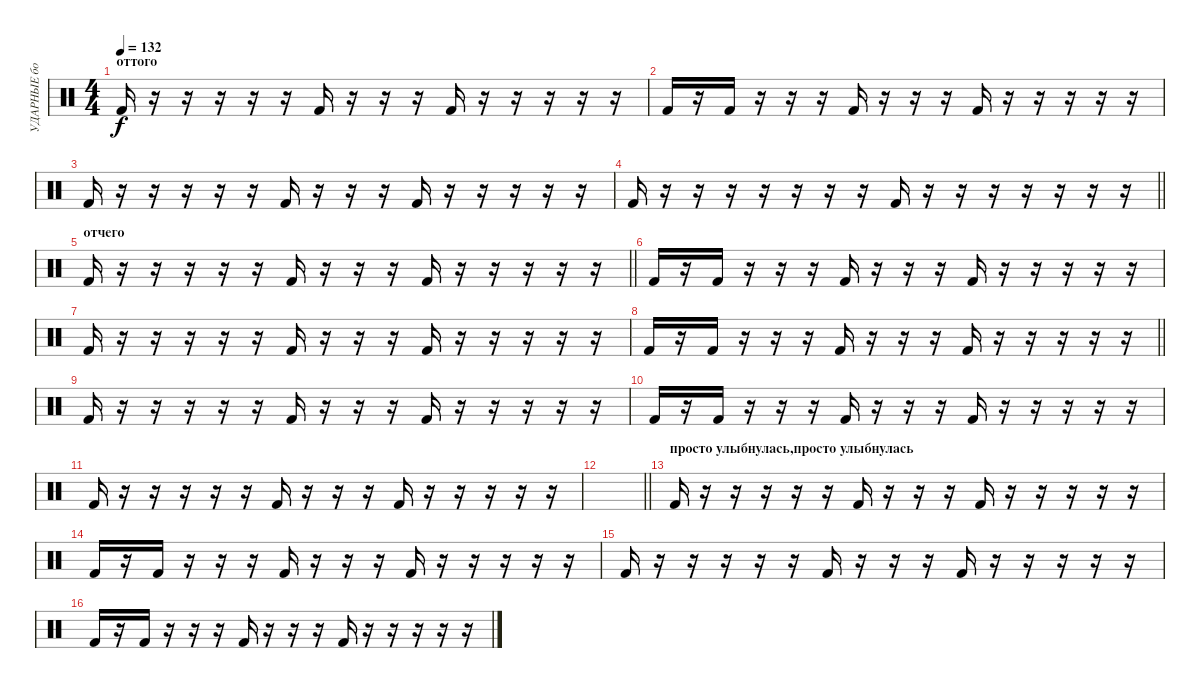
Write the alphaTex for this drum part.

\track ("УДАРНЫЕ бочка" "УДАРНЫЕ бо") {instrument percussion}
\staff {score}
\articulation defaults
\ts (4 4)
\section ("" "оттого")
\tempo 132
\clef neutral
\ks c "Kick (hit) 2".16{dy f}
r.16 r.16 r.16 r.16 r.16 "Kick (hit) 2".16 r.16 r.16 r.16 "Kick (hit) 2".16 r.16 r.16 r.16 r.16 r.16 |
"Kick (hit) 2".16 r.16 "Kick (hit) 2".16 r.16 r.16 r.16 "Kick (hit) 2".16 r.16 r.16 r.16 "Kick (hit) 2".16 r.16 r.16 r.16 r.16 r.16 |
"Kick (hit) 2".16 r.16 r.16 r.16 r.16 r.16 "Kick (hit) 2".16 r.16 r.16 r.16 "Kick (hit) 2".16 r.16 r.16 r.16 r.16 r.16 |
\barLineRight lightlight "Kick (hit) 2".16
r.16 r.16 r.16 r.16 r.16 r.16 r.16 "Kick (hit) 2".16 r.16 r.16 r.16 r.16 r.16 r.16 r.16 |
\section ("" "отчего")
\barLineRight lightlight "Kick (hit) 2".16
r.16 r.16 r.16 r.16 r.16 "Kick (hit) 2".16 r.16 r.16 r.16 "Kick (hit) 2".16 r.16 r.16 r.16 r.16 r.16 |
"Kick (hit) 2".16 r.16 "Kick (hit) 2".16 r.16 r.16 r.16 "Kick (hit) 2".16 r.16 r.16 r.16 "Kick (hit) 2".16 r.16 r.16 r.16 r.16 r.16 |
"Kick (hit) 2".16 r.16 r.16 r.16 r.16 r.16 "Kick (hit) 2".16 r.16 r.16 r.16 "Kick (hit) 2".16 r.16 r.16 r.16 r.16 r.16 |
\barLineRight lightlight "Kick (hit) 2".16
r.16 "Kick (hit) 2".16 r.16 r.16 r.16 "Kick (hit) 2".16 r.16 r.16 r.16 "Kick (hit) 2".16 r.16 r.16 r.16 r.16 r.16 |
"Kick (hit) 2".16 r.16 r.16 r.16 r.16 r.16 "Kick (hit) 2".16 r.16 r.16 r.16 "Kick (hit) 2".16 r.16 r.16 r.16 r.16 r.16 |
"Kick (hit) 2".16 r.16 "Kick (hit) 2".16 r.16 r.16 r.16 "Kick (hit) 2".16 r.16 r.16 r.16 "Kick (hit) 2".16 r.16 r.16 r.16 r.16 r.16 |
"Kick (hit) 2".16 r.16 r.16 r.16 r.16 r.16 "Kick (hit) 2".16 r.16 r.16 r.16 "Kick (hit) 2".16 r.16 r.16 r.16 r.16 r.16 |
\barLineRight lightlight
|
\section ("" "просто улыбнулась,просто улыбнулась")
"Kick (hit) 2".16 r.16 r.16 r.16 r.16 r.16 "Kick (hit) 2".16 r.16 r.16 r.16 "Kick (hit) 2".16 r.16 r.16 r.16 r.16 r.16 |
"Kick (hit) 2".16 r.16 "Kick (hit) 2".16 r.16 r.16 r.16 "Kick (hit) 2".16 r.16 r.16 r.16 "Kick (hit) 2".16 r.16 r.16 r.16 r.16 r.16 |
"Kick (hit) 2".16 r.16 r.16 r.16 r.16 r.16 "Kick (hit) 2".16 r.16 r.16 r.16 "Kick (hit) 2".16 r.16 r.16 r.16 r.16 r.16 |
"Kick (hit) 2".16 r.16 "Kick (hit) 2".16 r.16 r.16 r.16 "Kick (hit) 2".16 r.16 r.16 r.16 "Kick (hit) 2".16 r.16 r.16 r.16 r.16 r.16
